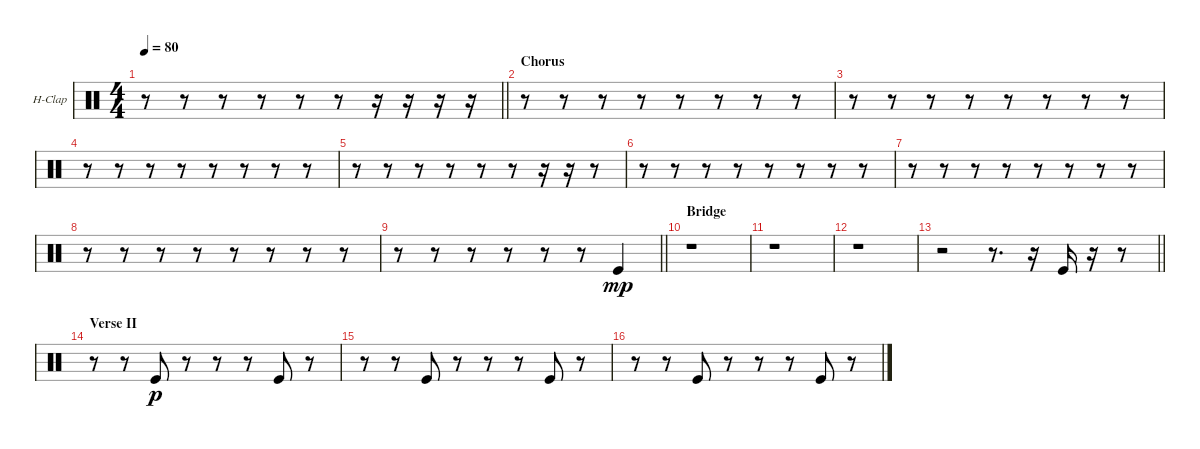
\bracketExtendMode groupsimilarinstruments
\firstSystemTrackNameOrientation horizontal
\otherSystemsTrackNameOrientation horizontal
\track ("Hand Clap" "H-Clap") {instrument percussion}
\staff {score}
\articulation defaults
\ts (4 4)
\tempo 80
\clef neutral
\barLineRight lightlight
\ks c
r.8{dy p} r.8 r.8 r.8 r.8 r.8 r.16 r.16 r.16 r.16 |
\section ("" "Chorus")
r.8 r.8 r.8 r.8 r.8 r.8 r.8 r.8 |
r.8 r.8 r.8 r.8 r.8 r.8 r.8 r.8 |
r.8 r.8 r.8 r.8 r.8 r.8 r.8 r.8 |
r.8 r.8 r.8 r.8 r.8 r.8 r.16 r.16 r.8 |
r.8 r.8 r.8 r.8 r.8 r.8 r.8 r.8 |
r.8 r.8 r.8 r.8 r.8 r.8 r.8 r.8 |
r.8 r.8 r.8 r.8 r.8 r.8 r.8 r.8 |
\barLineRight lightlight
r.8 r.8 r.8 r.8 r.8 r.8 "Kick (hit)".4{dy mp} |
\section ("" "Bridge")
r.1 |
r.1 |
r.1 |
\barLineRight lightlight
r.2 r.8{d} r.16 "Kick (hit)".16 r.16 r.8 |
\section ("" "Verse II")
r.8 r.8 "Kick (hit)".8{dy p} r.8 r.8 r.8 "Kick (hit)".8 r.8 |
r.8 r.8 "Kick (hit)".8 r.8 r.8 r.8 "Kick (hit)".8 r.8 |
r.8 r.8 "Kick (hit)".8 r.8 r.8 r.8 "Kick (hit)".8 r.8
